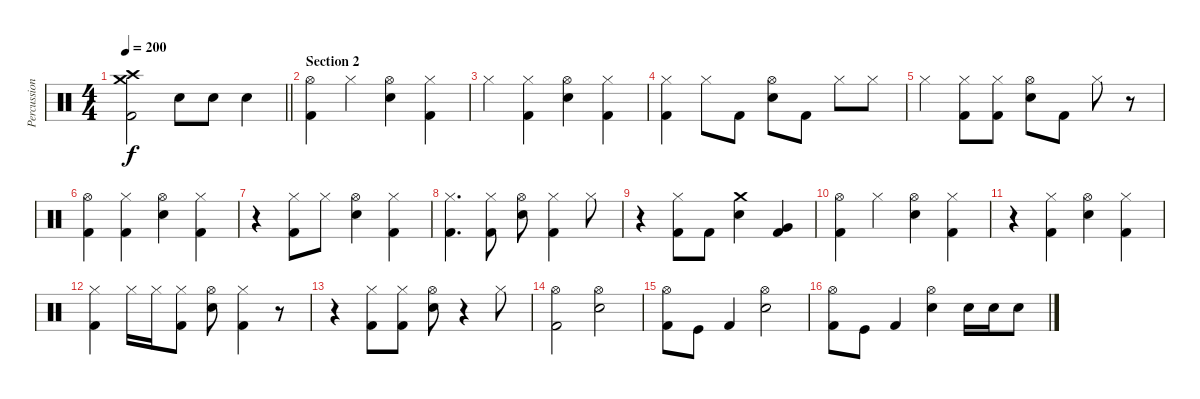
\track ("Percussion" "Percussion") {instrument percussion}
\staff {score}
\articulation defaults
\ts (4 4)
\tempo 200
\clef neutral
\barLineRight lightlight
\ks c
("Crash medium (hit)" "Crash high (hit)" "Kick (hit) 2").2{dy f} "Snare (hit) 2".8 "Snare (hit) 2".8 "Snare (hit) 2".4 |
\section ("" "Section 2")
("Hi-Hat (open)" "Kick (hit) 2").4 "Hi-Hat (closed)".4 ("Hi-Hat (open)" "Snare (hit) 2").4 ("Hi-Hat (closed)" "Kick (hit) 2").4 |
"Hi-Hat (closed)".4 ("Hi-Hat (closed)" "Kick (hit) 2").4 ("Hi-Hat (open)" "Snare (hit) 2").4 ("Hi-Hat (closed)" "Kick (hit) 2").4 |
("Hi-Hat (closed)" "Kick (hit) 2").4 "Hi-Hat (closed)".8 "Kick (hit) 2".8 ("Hi-Hat (open)" "Snare (hit) 2").8 "Kick (hit) 2".8 "Hi-Hat (closed)".8 "Hi-Hat (closed)".8 |
"Hi-Hat (closed)".4 ("Hi-Hat (closed)" "Kick (hit) 2").8 ("Hi-Hat (closed)" "Kick (hit) 2").8 ("Hi-Hat (open)" "Snare (hit) 2").8 "Kick (hit) 2".8 "Hi-Hat (closed)".8 r.8 |
("Hi-Hat (open)" "Kick (hit) 2").4 ("Hi-Hat (closed)" "Kick (hit) 2").4 ("Hi-Hat (open)" "Snare (hit) 2").4 ("Hi-Hat (closed)" "Kick (hit) 2").4 |
r.4 ("Hi-Hat (closed)" "Kick (hit) 2").8 "Hi-Hat (closed)".8 ("Hi-Hat (open)" "Snare (hit) 2").4 ("Hi-Hat (closed)" "Kick (hit) 2").4 |
("Hi-Hat (closed)" "Kick (hit) 2").4{d} ("Hi-Hat (closed)" "Kick (hit) 2").8 ("Hi-Hat (open)" "Snare (hit) 2").8 ("Hi-Hat (closed)" "Kick (hit) 2").4 "Hi-Hat (closed)".8 |
r.4 ("Hi-Hat (closed)" "Kick (hit) 2").8 "Kick (hit) 2".8 ("Crash medium (hit)" "Snare (hit) 2").4 ("Very Low Tom (hit)" "Kick (hit) 2").4 |
("Hi-Hat (open)" "Kick (hit) 2").4 "Hi-Hat (closed)".4 ("Hi-Hat (open)" "Snare (hit) 2").4 ("Hi-Hat (closed)" "Kick (hit) 2").4 |
r.4 ("Hi-Hat (closed)" "Kick (hit) 2").4 ("Hi-Hat (open)" "Snare (hit) 2").4 ("Hi-Hat (closed)" "Kick (hit) 2").4 |
("Hi-Hat (closed)" "Kick (hit) 2").4 "Hi-Hat (closed)".16 "Hi-Hat (closed)".16 ("Hi-Hat (closed)" "Kick (hit) 2").8 ("Hi-Hat (open)" "Snare (hit) 2").8 ("Hi-Hat (closed)" "Kick (hit) 2").4 r.8 |
r.4 ("Hi-Hat (closed)" "Kick (hit) 2").8 ("Hi-Hat (closed)" "Kick (hit) 2").8 ("Hi-Hat (open)" "Snare (hit) 2").8 r.4 "Hi-Hat (closed)".8 |
("Hi-Hat (open)" "Kick (hit) 2").2 ("Hi-Hat (open)" "Snare (hit) 2").2 |
("Hi-Hat (open)" "Kick (hit) 2").8 "Kick (hit)".8 "Kick (hit) 2".4 ("Hi-Hat (open)" "Snare (hit) 2").2 |
("Hi-Hat (open)" "Kick (hit) 2").8 "Kick (hit)".8 "Kick (hit) 2".4 ("Hi-Hat (open)" "Snare (hit) 2").4 "Snare (hit) 2".16 "Snare (hit) 2".16 "Snare (hit) 2".8
